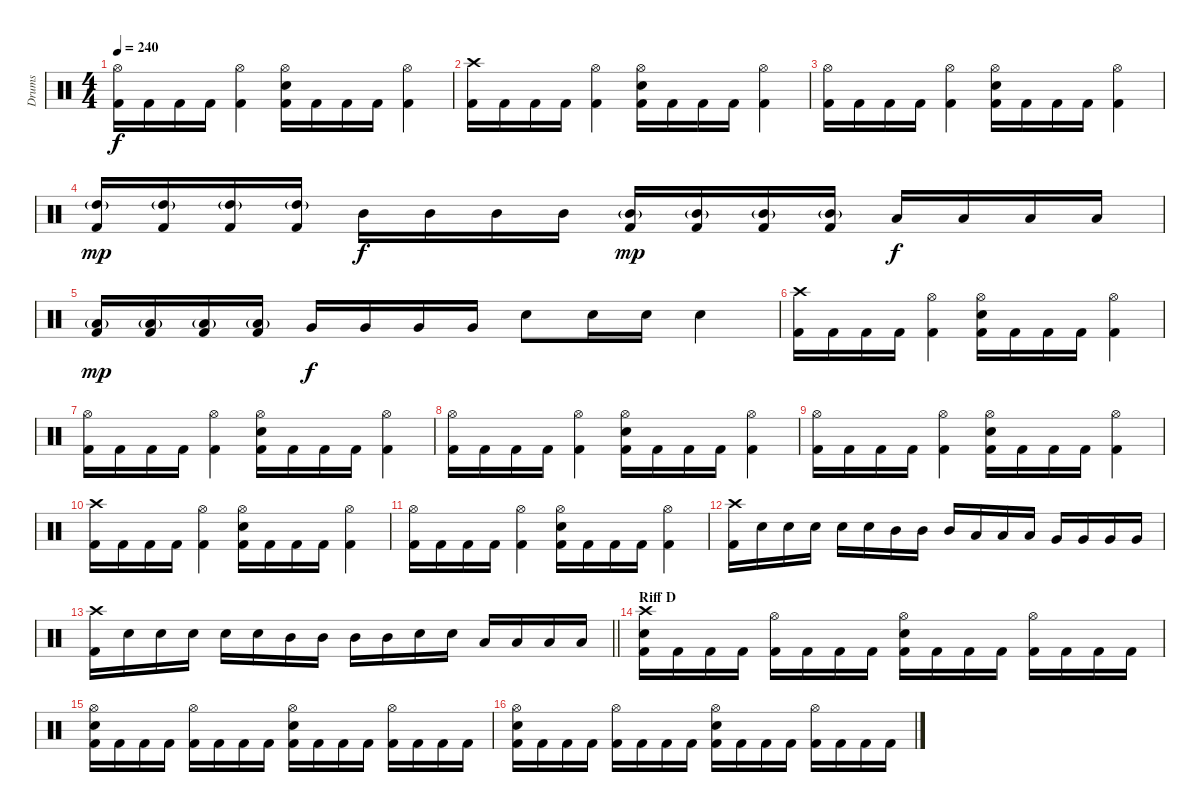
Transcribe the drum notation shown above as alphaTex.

\track ("Drums" "Drums") {instrument percussion}
\staff {score}
\articulation defaults
\ts (4 4)
\tempo 240
\clef neutral
\ks c
("Hi-Hat (open)" "Kick (hit) 2").16{dy f} "Kick (hit) 2".16 "Kick (hit) 2".16 "Kick (hit) 2".16 ("Hi-Hat (open)" "Kick (hit) 2").4 ("Hi-Hat (open)" "Electric Snare (hit)" "Kick (hit) 2").16 "Kick (hit) 2".16 "Kick (hit) 2".16 "Kick (hit) 2".16 ("Hi-Hat (open)" "Kick (hit) 2").4 |
("Crash high (hit)" "Kick (hit) 2").16 "Kick (hit) 2".16 "Kick (hit) 2".16 "Kick (hit) 2".16 ("Hi-Hat (open)" "Kick (hit) 2").4 ("Hi-Hat (open)" "Electric Snare (hit)" "Kick (hit) 2").16 "Kick (hit) 2".16 "Kick (hit) 2".16 "Kick (hit) 2".16 ("Hi-Hat (open)" "Kick (hit) 2").4 |
("Hi-Hat (open)" "Kick (hit) 2").16 "Kick (hit) 2".16 "Kick (hit) 2".16 "Kick (hit) 2".16 ("Hi-Hat (open)" "Kick (hit) 2").4 ("Hi-Hat (open)" "Electric Snare (hit)" "Kick (hit) 2").16 "Kick (hit) 2".16 "Kick (hit) 2".16 "Kick (hit) 2".16 ("Hi-Hat (open)" "Kick (hit) 2").4 |
("High Tom (hit)"{g} "Kick (hit) 2").16{dy mp} ("High Tom (hit)"{g} "Kick (hit) 2").16 ("High Tom (hit)"{g} "Kick (hit) 2").16 ("High Tom (hit)"{g} "Kick (hit) 2").16 "Mid Tom (hit)".16{dy f} "Mid Tom (hit)".16 "Mid Tom (hit)".16 "Mid Tom (hit)".16 ("Mid Tom (hit)"{g} "Kick (hit) 2").16{dy mp} ("Mid Tom (hit)"{g} "Kick (hit) 2").16 ("Mid Tom (hit)"{g} "Kick (hit) 2").16 ("Mid Tom (hit)"{g} "Kick (hit) 2").16 "Low Tom (hit)".16{dy f} "Low Tom (hit)".16 "Low Tom (hit)".16 "Low Tom (hit)".16 |
("Low Tom (hit)"{g} "Kick (hit) 2").16{dy mp} ("Low Tom (hit)"{g} "Kick (hit) 2").16 ("Low Tom (hit)"{g} "Kick (hit) 2").16 ("Low Tom (hit)"{g} "Kick (hit) 2").16 "Very Low Tom (hit)".16{dy f} "Very Low Tom (hit)".16 "Very Low Tom (hit)".16 "Very Low Tom (hit)".16 "Electric Snare (hit)".8 "Electric Snare (hit)".16 "Electric Snare (hit)".16 "Electric Snare (hit)".4 |
("Crash high (hit)" "Kick (hit) 2").16 "Kick (hit) 2".16 "Kick (hit) 2".16 "Kick (hit) 2".16 ("Hi-Hat (open)" "Kick (hit) 2").4 ("Hi-Hat (open)" "Electric Snare (hit)" "Kick (hit) 2").16 "Kick (hit) 2".16 "Kick (hit) 2".16 "Kick (hit) 2".16 ("Hi-Hat (open)" "Kick (hit) 2").4 |
("Hi-Hat (open)" "Kick (hit) 2").16 "Kick (hit) 2".16 "Kick (hit) 2".16 "Kick (hit) 2".16 ("Hi-Hat (open)" "Kick (hit) 2").4 ("Hi-Hat (open)" "Electric Snare (hit)" "Kick (hit) 2").16 "Kick (hit) 2".16 "Kick (hit) 2".16 "Kick (hit) 2".16 ("Hi-Hat (open)" "Kick (hit) 2").4 |
("Hi-Hat (open)" "Kick (hit) 2").16 "Kick (hit) 2".16 "Kick (hit) 2".16 "Kick (hit) 2".16 ("Hi-Hat (open)" "Kick (hit) 2").4 ("Hi-Hat (open)" "Electric Snare (hit)" "Kick (hit) 2").16 "Kick (hit) 2".16 "Kick (hit) 2".16 "Kick (hit) 2".16 ("Hi-Hat (open)" "Kick (hit) 2").4 |
("Hi-Hat (open)" "Kick (hit) 2").16 "Kick (hit) 2".16 "Kick (hit) 2".16 "Kick (hit) 2".16 ("Hi-Hat (open)" "Kick (hit) 2").4 ("Hi-Hat (open)" "Electric Snare (hit)" "Kick (hit) 2").16 "Kick (hit) 2".16 "Kick (hit) 2".16 "Kick (hit) 2".16 ("Hi-Hat (open)" "Kick (hit) 2").4 |
("Crash high (hit)" "Kick (hit) 2").16 "Kick (hit) 2".16 "Kick (hit) 2".16 "Kick (hit) 2".16 ("Hi-Hat (open)" "Kick (hit) 2").4 ("Hi-Hat (open)" "Electric Snare (hit)" "Kick (hit) 2").16 "Kick (hit) 2".16 "Kick (hit) 2".16 "Kick (hit) 2".16 ("Hi-Hat (open)" "Kick (hit) 2").4 |
("Hi-Hat (open)" "Kick (hit) 2").16 "Kick (hit) 2".16 "Kick (hit) 2".16 "Kick (hit) 2".16 ("Hi-Hat (open)" "Kick (hit) 2").4 ("Hi-Hat (open)" "Electric Snare (hit)" "Kick (hit) 2").16 "Kick (hit) 2".16 "Kick (hit) 2".16 "Kick (hit) 2".16 ("Hi-Hat (open)" "Kick (hit) 2").4 |
("Crash high (hit)" "Kick (hit) 2").16 "Electric Snare (hit)".16 "Electric Snare (hit)".16 "Electric Snare (hit)".16 "Electric Snare (hit)".16 "Electric Snare (hit)".16 "Mid Tom (hit)".16 "Mid Tom (hit)".16 "Mid Tom (hit)".16 "Low Tom (hit)".16 "Low Tom (hit)".16 "Low Tom (hit)".16 "Very Low Tom (hit)".16 "Very Low Tom (hit)".16 "Very Low Tom (hit)".16 "Very Low Tom (hit)".16 |
\barLineRight lightlight
("Crash high (hit)" "Kick (hit) 2").16 "Electric Snare (hit)".16 "Electric Snare (hit)".16 "Electric Snare (hit)".16 "Electric Snare (hit)".16 "Electric Snare (hit)".16 "Mid Tom (hit)".16 "Mid Tom (hit)".16 "Mid Tom (hit)".16 "Mid Tom (hit)".16 "Electric Snare (hit)".16 "Electric Snare (hit)".16 "Low Tom (hit)".16 "Low Tom (hit)".16 "Low Tom (hit)".16 "Low Tom (hit)".16 |
\section ("" "Riff D")
("Crash high (hit)" "Electric Snare (hit)" "Kick (hit) 2").16 "Kick (hit) 2".16 "Kick (hit) 2".16 "Kick (hit) 2".16 ("Hi-Hat (open)" "Kick (hit) 2").16 "Kick (hit) 2".16 "Kick (hit) 2".16 "Kick (hit) 2".16 ("Hi-Hat (open)" "Electric Snare (hit)" "Kick (hit) 2").16 "Kick (hit) 2".16 "Kick (hit) 2".16 "Kick (hit) 2".16 ("Hi-Hat (open)" "Kick (hit) 2").16 "Kick (hit) 2".16 "Kick (hit) 2".16 "Kick (hit) 2".16 |
("Hi-Hat (open)" "Electric Snare (hit)" "Kick (hit) 2").16 "Kick (hit) 2".16 "Kick (hit) 2".16 "Kick (hit) 2".16 ("Hi-Hat (open)" "Kick (hit) 2").16 "Kick (hit) 2".16 "Kick (hit) 2".16 "Kick (hit) 2".16 ("Hi-Hat (open)" "Electric Snare (hit)" "Kick (hit) 2").16 "Kick (hit) 2".16 "Kick (hit) 2".16 "Kick (hit) 2".16 ("Hi-Hat (open)" "Kick (hit) 2").16 "Kick (hit) 2".16 "Kick (hit) 2".16 "Kick (hit) 2".16 |
("Hi-Hat (open)" "Electric Snare (hit)" "Kick (hit) 2").16 "Kick (hit) 2".16 "Kick (hit) 2".16 "Kick (hit) 2".16 ("Hi-Hat (open)" "Kick (hit) 2").16 "Kick (hit) 2".16 "Kick (hit) 2".16 "Kick (hit) 2".16 ("Hi-Hat (open)" "Electric Snare (hit)" "Kick (hit) 2").16 "Kick (hit) 2".16 "Kick (hit) 2".16 "Kick (hit) 2".16 ("Hi-Hat (open)" "Kick (hit) 2").16 "Kick (hit) 2".16 "Kick (hit) 2".16 "Kick (hit) 2".16
